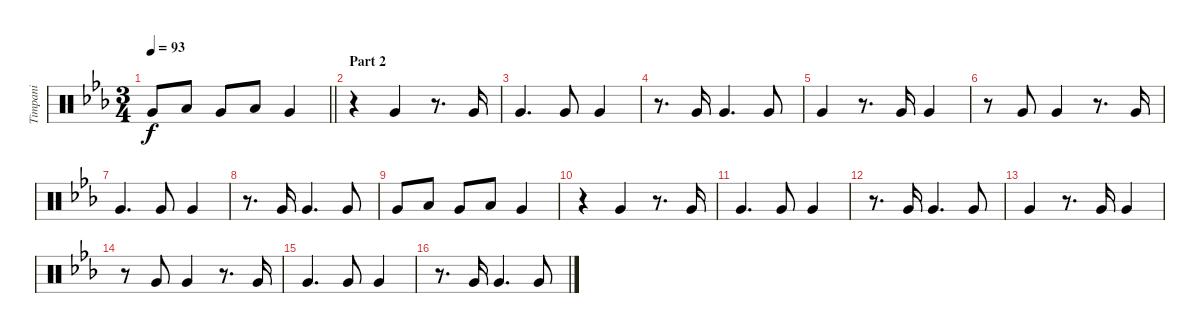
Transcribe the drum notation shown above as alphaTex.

\track ("Timpani" "Timpani") {instrument percussion}
\staff {score}
\articulation defaults
\ts (3 4)
\tempo 93
\clef neutral
\barLineRight lightlight
\ks cminor "Very Low Tom (hit)".8{dy f} "Low Floor Tom (hit)".8 "Very Low Tom (hit)".8 "Low Floor Tom (hit)".8 "Very Low Tom (hit)".4
|
\section ("" "Part 2")
r.4 "Very Low Tom (hit)".4 r.8{d} "Very Low Tom (hit)".16 |
"Very Low Tom (hit)".4{d} "Very Low Tom (hit)".8 "Very Low Tom (hit)".4 |
r.8{d} "Very Low Tom (hit)".16 "Very Low Tom (hit)".4{d} "Very Low Tom (hit)".8 |
"Very Low Tom (hit)".4 r.8{d} "Very Low Tom (hit)".16 "Very Low Tom (hit)".4 |
r.8 "Very Low Tom (hit)".8 "Very Low Tom (hit)".4 r.8{d} "Very Low Tom (hit)".16 |
"Very Low Tom (hit)".4{d} "Very Low Tom (hit)".8 "Very Low Tom (hit)".4 |
r.8{d} "Very Low Tom (hit)".16 "Very Low Tom (hit)".4{d} "Very Low Tom (hit)".8 |
"Very Low Tom (hit)".8 "Low Floor Tom (hit)".8 "Very Low Tom (hit)".8 "Low Floor Tom (hit)".8 "Very Low Tom (hit)".4 |
r.4 "Very Low Tom (hit)".4 r.8{d} "Very Low Tom (hit)".16 |
"Very Low Tom (hit)".4{d} "Very Low Tom (hit)".8 "Very Low Tom (hit)".4 |
r.8{d} "Very Low Tom (hit)".16 "Very Low Tom (hit)".4{d} "Very Low Tom (hit)".8 |
"Very Low Tom (hit)".4 r.8{d} "Very Low Tom (hit)".16 "Very Low Tom (hit)".4 |
r.8 "Very Low Tom (hit)".8 "Very Low Tom (hit)".4 r.8{d} "Very Low Tom (hit)".16 |
"Very Low Tom (hit)".4{d} "Very Low Tom (hit)".8 "Very Low Tom (hit)".4 |
r.8{d} "Very Low Tom (hit)".16 "Very Low Tom (hit)".4{d} "Very Low Tom (hit)".8
